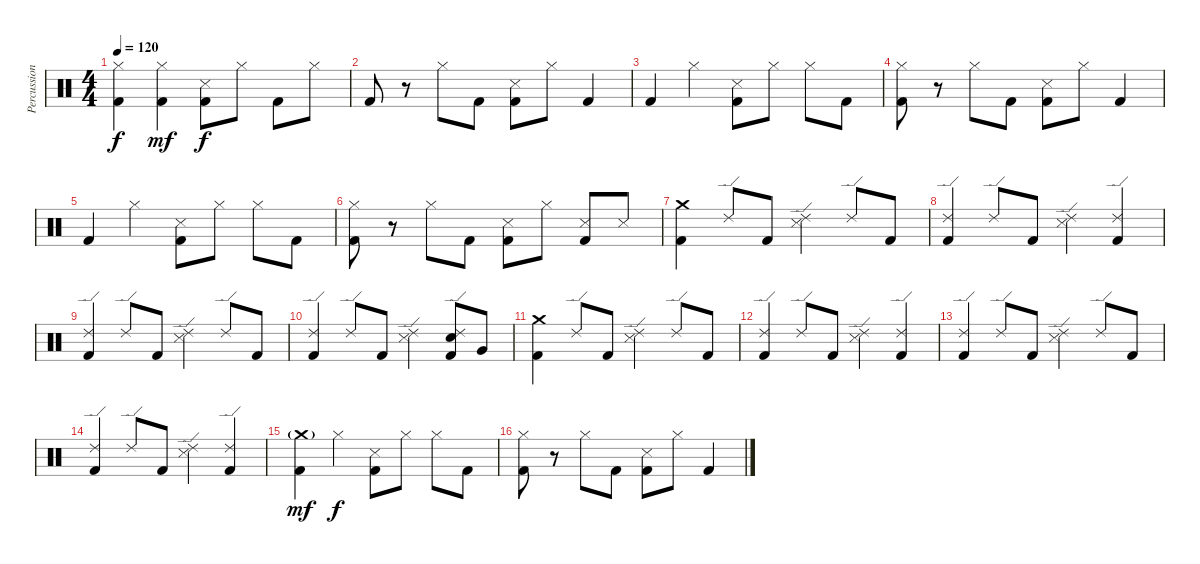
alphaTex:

\track ("Percussion" "Percussion") {instrument percussion}
\staff {score}
\articulation defaults
\ts (4 4)
\tempo 120
\clef neutral
\ks c
("Hi-Hat (closed)" "Kick (hit) 2").4{dy f} ("Hi-Hat (closed)" "Kick (hit) 2").4{dy mf} ("Snare (side stick) 3" "Kick (hit) 2").8{dy f} "Hi-Hat (closed)".8 "Kick (hit) 2".8 "Hi-Hat (closed)".8 |
"Kick (hit) 2".8 r.8 "Hi-Hat (closed)".8 "Kick (hit) 2".8 ("Snare (side stick) 3" "Kick (hit) 2").8 "Hi-Hat (closed)".8 "Kick (hit) 2".4 |
"Kick (hit) 2".4 "Hi-Hat (closed)".4 ("Snare (side stick) 3" "Kick (hit) 2").8 "Hi-Hat (closed)".8 "Hi-Hat (closed)".8 "Kick (hit) 2".8 |
("Hi-Hat (closed)" "Kick (hit) 2").8 r.8 "Hi-Hat (closed)".8 "Kick (hit) 2".8 ("Snare (side stick) 3" "Kick (hit) 2").8 "Hi-Hat (closed)".8 "Kick (hit) 2".4 |
"Kick (hit) 2".4 "Hi-Hat (closed)".4 ("Snare (side stick) 3" "Kick (hit) 2").8 "Hi-Hat (closed)".8 "Hi-Hat (closed)".8 "Kick (hit) 2".8 |
("Hi-Hat (closed)" "Kick (hit) 2").8 r.8 "Hi-Hat (closed)".8 "Kick (hit) 2".8 ("Snare (side stick) 3" "Kick (hit) 2").8 "Hi-Hat (closed)".8 ("Snare (side stick) 3" "Kick (hit) 2").8 "Snare (side stick) 3".8 |
("Crash medium (hit)" "Kick (hit) 2").4 "Ride (edge) 2".8 "Kick (hit) 2".8 ("Ride (edge) 2" "Snare (side stick) 3").4 "Ride (edge) 2".8 "Kick (hit) 2".8 |
("Ride (edge) 2" "Kick (hit) 2").4 "Ride (edge) 2".8 "Kick (hit) 2".8 ("Ride (edge) 2" "Snare (side stick) 3").4 ("Ride (edge) 2" "Kick (hit) 2").4 |
("Ride (edge) 2" "Kick (hit) 2").4 "Ride (edge) 2".8 "Kick (hit) 2".8 ("Ride (edge) 2" "Snare (side stick) 3").4 "Ride (edge) 2".8 "Kick (hit) 2".8 |
("Ride (edge) 2" "Kick (hit) 2").4 "Ride (edge) 2".8 "Kick (hit) 2".8 ("Ride (edge) 2" "Snare (side stick) 3").4 ("Ride (edge) 2" "Snare (hit) 2" "Kick (hit) 2").8 "Very Low Tom (hit)".8 |
("Crash medium (hit)" "Kick (hit) 2").4 "Ride (edge) 2".8 "Kick (hit) 2".8 ("Ride (edge) 2" "Snare (side stick) 3").4 "Ride (edge) 2".8 "Kick (hit) 2".8 |
("Ride (edge) 2" "Kick (hit) 2").4 "Ride (edge) 2".8 "Kick (hit) 2".8 ("Ride (edge) 2" "Snare (side stick) 3").4 ("Ride (edge) 2" "Kick (hit) 2").4 |
("Ride (edge) 2" "Kick (hit) 2").4 "Ride (edge) 2".8 "Kick (hit) 2".8 ("Ride (edge) 2" "Snare (side stick) 3").4 "Ride (edge) 2".8 "Kick (hit) 2".8 |
("Ride (edge) 2" "Kick (hit) 2").4 "Ride (edge) 2".8 "Kick (hit) 2".8 ("Ride (edge) 2" "Snare (side stick) 3").4 ("Ride (edge) 2" "Kick (hit) 2").4 |
("Crash medium (hit)"{g} "Kick (hit) 2").4{dy mf} "Hi-Hat (closed)".4{dy f} ("Snare (side stick) 3" "Kick (hit) 2").8 "Hi-Hat (closed)".8 "Hi-Hat (closed)".8 "Kick (hit) 2".8 |
("Hi-Hat (closed)" "Kick (hit) 2").8 r.8 "Hi-Hat (closed)".8 "Kick (hit) 2".8 ("Snare (side stick) 3" "Kick (hit) 2").8 "Hi-Hat (closed)".8 "Kick (hit) 2".4
